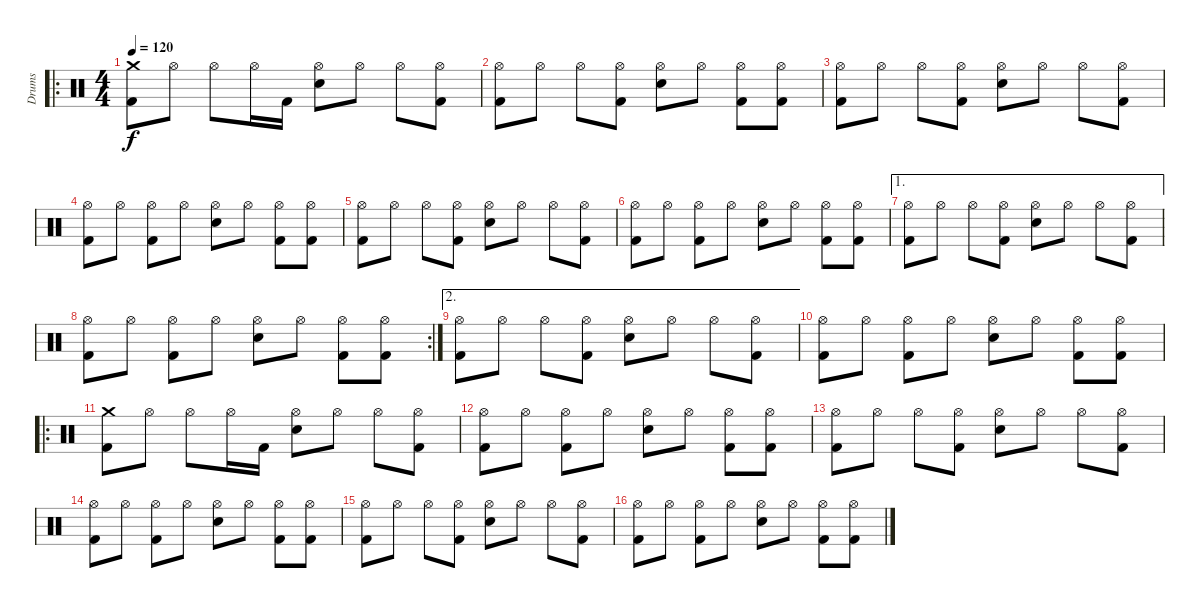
\track ("Drums " "Drums ") {instrument percussion}
\staff {score}
\articulation defaults
\ro
\ts (4 4)
\tempo 120
\clef neutral
\ks c
("Crash medium (hit)" "Kick (hit) 2").8{dy f} "Hi-Hat (open)".8 "Hi-Hat (open)".8 "Hi-Hat (open)".16 "Kick (hit) 2".16 ("Hi-Hat (open)" "Snare (hit) 2").8 "Hi-Hat (open)".8 "Hi-Hat (open)".8 ("Hi-Hat (open)" "Kick (hit) 2").8 |
("Hi-Hat (open)" "Kick (hit) 2").8 "Hi-Hat (open)".8 "Hi-Hat (open)".8 ("Hi-Hat (open)" "Kick (hit) 2").8 ("Hi-Hat (open)" "Snare (hit) 2").8 "Hi-Hat (open)".8 ("Hi-Hat (open)" "Kick (hit) 2").8 ("Hi-Hat (open)" "Kick (hit) 2").8 |
("Hi-Hat (open)" "Kick (hit) 2").8 "Hi-Hat (open)".8 "Hi-Hat (open)".8 ("Hi-Hat (open)" "Kick (hit) 2").8 ("Hi-Hat (open)" "Snare (hit) 2").8 "Hi-Hat (open)".8 "Hi-Hat (open)".8 ("Hi-Hat (open)" "Kick (hit) 2").8 |
("Hi-Hat (open)" "Kick (hit) 2").8 "Hi-Hat (open)".8 ("Hi-Hat (open)" "Kick (hit) 2").8 "Hi-Hat (open)".8 ("Hi-Hat (open)" "Snare (hit) 2").8 "Hi-Hat (open)".8 ("Hi-Hat (open)" "Kick (hit) 2").8 ("Hi-Hat (open)" "Kick (hit) 2").8 |
("Hi-Hat (open)" "Kick (hit) 2").8 "Hi-Hat (open)".8 "Hi-Hat (open)".8 ("Hi-Hat (open)" "Kick (hit) 2").8 ("Hi-Hat (open)" "Snare (hit) 2").8 "Hi-Hat (open)".8 "Hi-Hat (open)".8 ("Hi-Hat (open)" "Kick (hit) 2").8 |
("Hi-Hat (open)" "Kick (hit) 2").8 "Hi-Hat (open)".8 ("Hi-Hat (open)" "Kick (hit) 2").8 "Hi-Hat (open)".8 ("Hi-Hat (open)" "Snare (hit) 2").8 "Hi-Hat (open)".8 ("Hi-Hat (open)" "Kick (hit) 2").8 ("Hi-Hat (open)" "Kick (hit) 2").8 |
\ae 1
("Hi-Hat (open)" "Kick (hit) 2").8 "Hi-Hat (open)".8 "Hi-Hat (open)".8 ("Hi-Hat (open)" "Kick (hit) 2").8 ("Hi-Hat (open)" "Snare (hit) 2").8 "Hi-Hat (open)".8 "Hi-Hat (open)".8 ("Hi-Hat (open)" "Kick (hit) 2").8 |
\rc 2
("Hi-Hat (open)" "Kick (hit) 2").8 "Hi-Hat (open)".8 ("Hi-Hat (open)" "Kick (hit) 2").8 "Hi-Hat (open)".8 ("Hi-Hat (open)" "Snare (hit) 2").8 "Hi-Hat (open)".8 ("Hi-Hat (open)" "Kick (hit) 2").8 ("Hi-Hat (open)" "Kick (hit) 2").8 |
\ae 2
("Hi-Hat (open)" "Kick (hit) 2").8 "Hi-Hat (open)".8 "Hi-Hat (open)".8 ("Hi-Hat (open)" "Kick (hit) 2").8 ("Hi-Hat (open)" "Snare (hit) 2").8 "Hi-Hat (open)".8 "Hi-Hat (open)".8 ("Hi-Hat (open)" "Kick (hit) 2").8 |
("Hi-Hat (open)" "Kick (hit) 2").8 "Hi-Hat (open)".8 ("Hi-Hat (open)" "Kick (hit) 2").8 "Hi-Hat (open)".8 ("Hi-Hat (open)" "Snare (hit) 2").8 "Hi-Hat (open)".8 ("Hi-Hat (open)" "Kick (hit) 2").8 ("Hi-Hat (open)" "Kick (hit) 2").8 |
\ro
("Crash medium (hit)" "Kick (hit) 2").8 "Hi-Hat (open)".8 "Hi-Hat (open)".8 "Hi-Hat (open)".16 "Kick (hit) 2".16 ("Hi-Hat (open)" "Snare (hit) 2").8 "Hi-Hat (open)".8 "Hi-Hat (open)".8 ("Hi-Hat (open)" "Kick (hit) 2").8 |
("Hi-Hat (open)" "Kick (hit) 2").8 "Hi-Hat (open)".8 ("Hi-Hat (open)" "Kick (hit) 2").8 "Hi-Hat (open)".8 ("Hi-Hat (open)" "Snare (hit) 2").8 "Hi-Hat (open)".8 ("Hi-Hat (open)" "Kick (hit) 2").8 ("Hi-Hat (open)" "Kick (hit) 2").8 |
("Hi-Hat (open)" "Kick (hit) 2").8 "Hi-Hat (open)".8 "Hi-Hat (open)".8 ("Hi-Hat (open)" "Kick (hit) 2").8 ("Hi-Hat (open)" "Snare (hit) 2").8 "Hi-Hat (open)".8 "Hi-Hat (open)".8 ("Hi-Hat (open)" "Kick (hit) 2").8 |
("Hi-Hat (open)" "Kick (hit) 2").8 "Hi-Hat (open)".8 ("Hi-Hat (open)" "Kick (hit) 2").8 "Hi-Hat (open)".8 ("Hi-Hat (open)" "Snare (hit) 2").8 "Hi-Hat (open)".8 ("Hi-Hat (open)" "Kick (hit) 2").8 ("Hi-Hat (open)" "Kick (hit) 2").8 |
("Hi-Hat (open)" "Kick (hit) 2").8 "Hi-Hat (open)".8 "Hi-Hat (open)".8 ("Hi-Hat (open)" "Kick (hit) 2").8 ("Hi-Hat (open)" "Snare (hit) 2").8 "Hi-Hat (open)".8 "Hi-Hat (open)".8 ("Hi-Hat (open)" "Kick (hit) 2").8 |
("Hi-Hat (open)" "Kick (hit) 2").8 "Hi-Hat (open)".8 ("Hi-Hat (open)" "Kick (hit) 2").8 "Hi-Hat (open)".8 ("Hi-Hat (open)" "Snare (hit) 2").8 "Hi-Hat (open)".8 ("Hi-Hat (open)" "Kick (hit) 2").8 ("Hi-Hat (open)" "Kick (hit) 2").8
